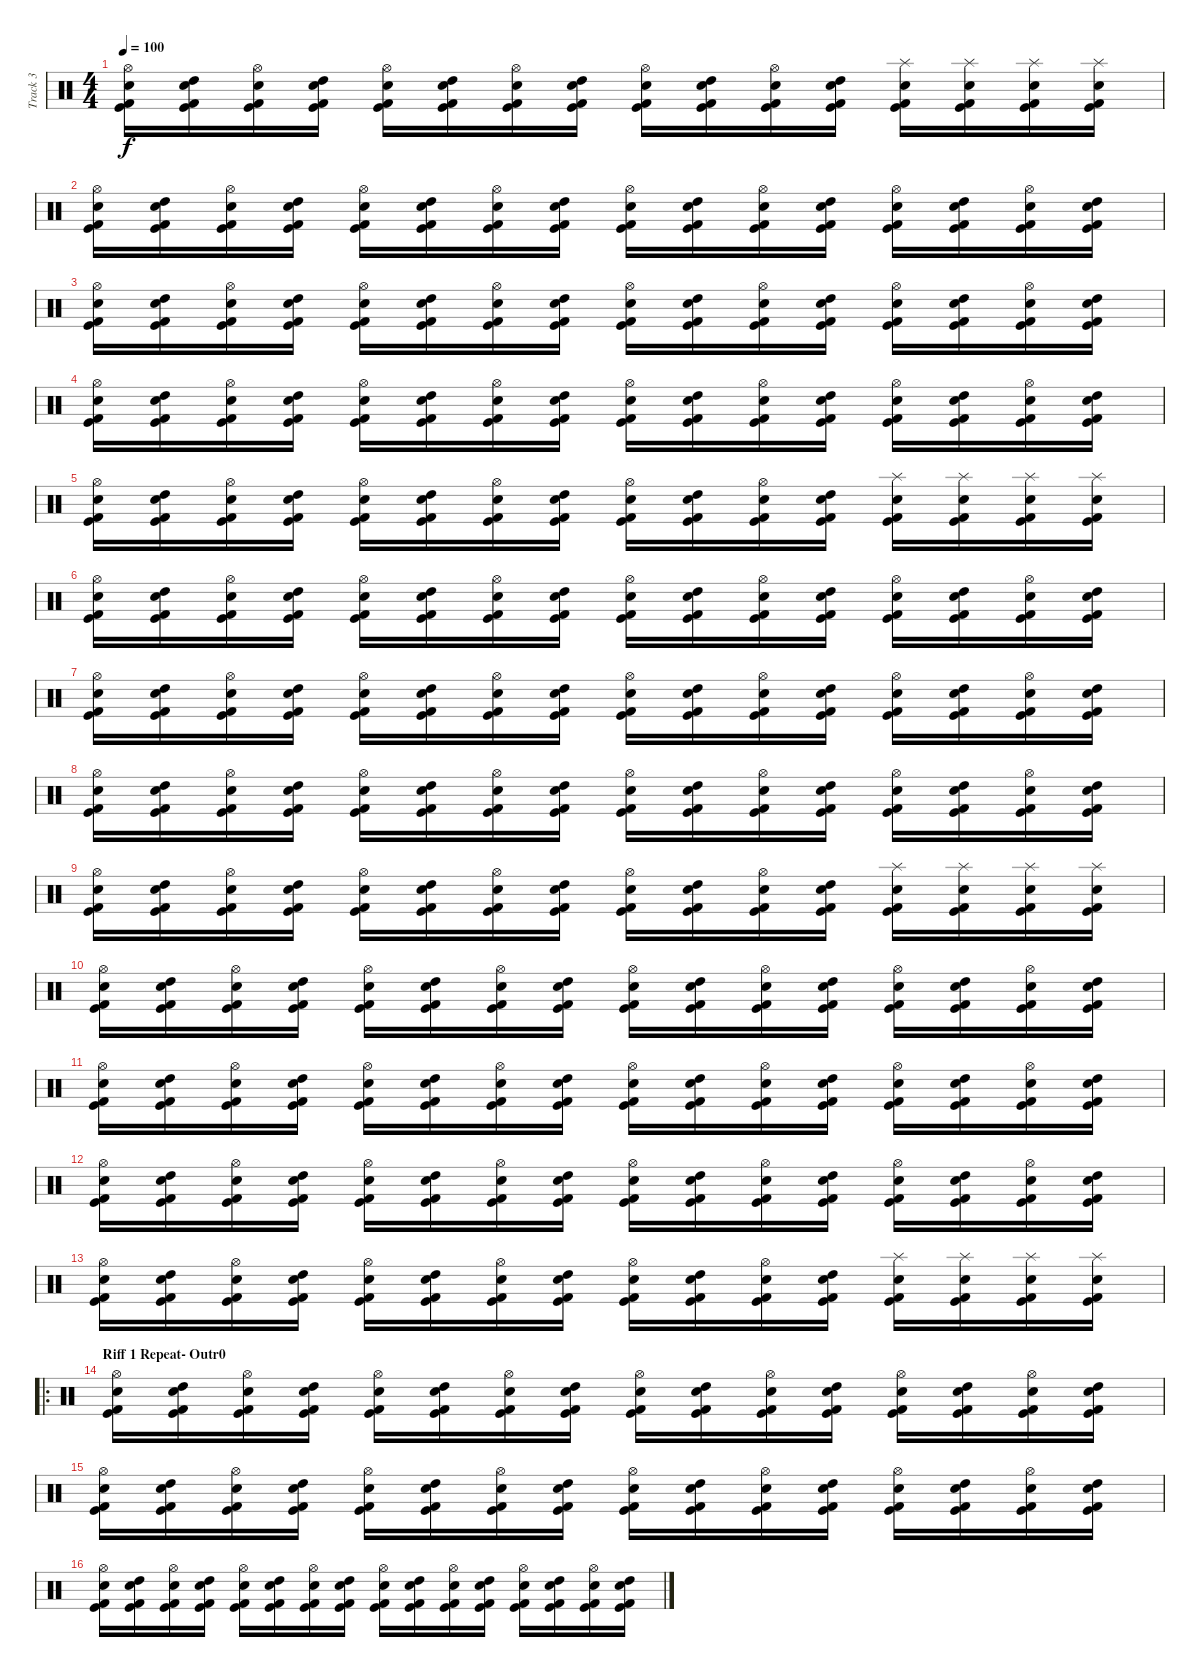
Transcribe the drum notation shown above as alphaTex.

\track ("Track 3" "Track 3") {instrument percussion}
\staff {score}
\articulation defaults
\ts (4 4)
\tempo 100
\clef neutral
\ks c
("Hi-Hat (open)" "Snare (hit) 2" "Kick (hit) 2" "Kick (hit)").16{dy f} ("High Tom (hit)" "Snare (hit) 2" "Kick (hit) 2" "Kick (hit)").16 ("Hi-Hat (open)" "Snare (hit) 2" "Kick (hit) 2" "Kick (hit)").16 ("High Tom (hit)" "Snare (hit) 2" "Kick (hit) 2" "Kick (hit)").16 ("Hi-Hat (open)" "Snare (hit) 2" "Kick (hit) 2" "Kick (hit)").16 ("High Tom (hit)" "Snare (hit) 2" "Kick (hit) 2" "Kick (hit)").16 ("Hi-Hat (open)" "Snare (hit) 2" "Kick (hit) 2" "Kick (hit)").16 ("High Tom (hit)" "Snare (hit) 2" "Kick (hit) 2" "Kick (hit)").16 ("Hi-Hat (open)" "Snare (hit) 2" "Kick (hit) 2" "Kick (hit)").16 ("High Tom (hit)" "Snare (hit) 2" "Kick (hit) 2" "Kick (hit)").16 ("Hi-Hat (open)" "Snare (hit) 2" "Kick (hit) 2" "Kick (hit)").16 ("High Tom (hit)" "Snare (hit) 2" "Kick (hit) 2" "Kick (hit)").16 ("Splash (hit)" "Snare (hit) 2" "Kick (hit) 2" "Kick (hit)").16 ("Splash (hit)" "Snare (hit) 2" "Kick (hit) 2" "Kick (hit)").16 ("Splash (hit)" "Snare (hit) 2" "Kick (hit) 2" "Kick (hit)").16 ("Splash (hit)" "Snare (hit) 2" "Kick (hit) 2" "Kick (hit)").16 |
("Hi-Hat (open)" "Snare (hit) 2" "Kick (hit) 2" "Kick (hit)").16 ("High Tom (hit)" "Snare (hit) 2" "Kick (hit) 2" "Kick (hit)").16 ("Hi-Hat (open)" "Snare (hit) 2" "Kick (hit) 2" "Kick (hit)").16 ("High Tom (hit)" "Snare (hit) 2" "Kick (hit) 2" "Kick (hit)").16 ("Hi-Hat (open)" "Snare (hit) 2" "Kick (hit) 2" "Kick (hit)").16 ("High Tom (hit)" "Snare (hit) 2" "Kick (hit) 2" "Kick (hit)").16 ("Hi-Hat (open)" "Snare (hit) 2" "Kick (hit) 2" "Kick (hit)").16 ("High Tom (hit)" "Snare (hit) 2" "Kick (hit) 2" "Kick (hit)").16 ("Hi-Hat (open)" "Snare (hit) 2" "Kick (hit) 2" "Kick (hit)").16 ("High Tom (hit)" "Snare (hit) 2" "Kick (hit) 2" "Kick (hit)").16 ("Hi-Hat (open)" "Snare (hit) 2" "Kick (hit) 2" "Kick (hit)").16 ("High Tom (hit)" "Snare (hit) 2" "Kick (hit) 2" "Kick (hit)").16 ("Hi-Hat (open)" "Snare (hit) 2" "Kick (hit) 2" "Kick (hit)").16 ("High Tom (hit)" "Snare (hit) 2" "Kick (hit) 2" "Kick (hit)").16 ("Hi-Hat (open)" "Snare (hit) 2" "Kick (hit) 2" "Kick (hit)").16 ("High Tom (hit)" "Snare (hit) 2" "Kick (hit) 2" "Kick (hit)").16 |
("Hi-Hat (open)" "Snare (hit) 2" "Kick (hit) 2" "Kick (hit)").16 ("High Tom (hit)" "Snare (hit) 2" "Kick (hit) 2" "Kick (hit)").16 ("Hi-Hat (open)" "Snare (hit) 2" "Kick (hit) 2" "Kick (hit)").16 ("High Tom (hit)" "Snare (hit) 2" "Kick (hit) 2" "Kick (hit)").16 ("Hi-Hat (open)" "Snare (hit) 2" "Kick (hit) 2" "Kick (hit)").16 ("High Tom (hit)" "Snare (hit) 2" "Kick (hit) 2" "Kick (hit)").16 ("Hi-Hat (open)" "Snare (hit) 2" "Kick (hit) 2" "Kick (hit)").16 ("High Tom (hit)" "Snare (hit) 2" "Kick (hit) 2" "Kick (hit)").16 ("Hi-Hat (open)" "Snare (hit) 2" "Kick (hit) 2" "Kick (hit)").16 ("High Tom (hit)" "Snare (hit) 2" "Kick (hit) 2" "Kick (hit)").16 ("Hi-Hat (open)" "Snare (hit) 2" "Kick (hit) 2" "Kick (hit)").16 ("High Tom (hit)" "Snare (hit) 2" "Kick (hit) 2" "Kick (hit)").16 ("Hi-Hat (open)" "Snare (hit) 2" "Kick (hit) 2" "Kick (hit)").16 ("High Tom (hit)" "Snare (hit) 2" "Kick (hit) 2" "Kick (hit)").16 ("Hi-Hat (open)" "Snare (hit) 2" "Kick (hit) 2" "Kick (hit)").16 ("High Tom (hit)" "Snare (hit) 2" "Kick (hit) 2" "Kick (hit)").16 |
("Hi-Hat (open)" "Snare (hit) 2" "Kick (hit) 2" "Kick (hit)").16 ("High Tom (hit)" "Snare (hit) 2" "Kick (hit) 2" "Kick (hit)").16 ("Hi-Hat (open)" "Snare (hit) 2" "Kick (hit) 2" "Kick (hit)").16 ("High Tom (hit)" "Snare (hit) 2" "Kick (hit) 2" "Kick (hit)").16 ("Hi-Hat (open)" "Snare (hit) 2" "Kick (hit) 2" "Kick (hit)").16 ("High Tom (hit)" "Snare (hit) 2" "Kick (hit) 2" "Kick (hit)").16 ("Hi-Hat (open)" "Snare (hit) 2" "Kick (hit) 2" "Kick (hit)").16 ("High Tom (hit)" "Snare (hit) 2" "Kick (hit) 2" "Kick (hit)").16 ("Hi-Hat (open)" "Snare (hit) 2" "Kick (hit) 2" "Kick (hit)").16 ("High Tom (hit)" "Snare (hit) 2" "Kick (hit) 2" "Kick (hit)").16 ("Hi-Hat (open)" "Snare (hit) 2" "Kick (hit) 2" "Kick (hit)").16 ("High Tom (hit)" "Snare (hit) 2" "Kick (hit) 2" "Kick (hit)").16 ("Hi-Hat (open)" "Snare (hit) 2" "Kick (hit) 2" "Kick (hit)").16 ("High Tom (hit)" "Snare (hit) 2" "Kick (hit) 2" "Kick (hit)").16 ("Hi-Hat (open)" "Snare (hit) 2" "Kick (hit) 2" "Kick (hit)").16 ("High Tom (hit)" "Snare (hit) 2" "Kick (hit) 2" "Kick (hit)").16 |
("Hi-Hat (open)" "Snare (hit) 2" "Kick (hit) 2" "Kick (hit)").16 ("High Tom (hit)" "Snare (hit) 2" "Kick (hit) 2" "Kick (hit)").16 ("Hi-Hat (open)" "Snare (hit) 2" "Kick (hit) 2" "Kick (hit)").16 ("High Tom (hit)" "Snare (hit) 2" "Kick (hit) 2" "Kick (hit)").16 ("Hi-Hat (open)" "Snare (hit) 2" "Kick (hit) 2" "Kick (hit)").16 ("High Tom (hit)" "Snare (hit) 2" "Kick (hit) 2" "Kick (hit)").16 ("Hi-Hat (open)" "Snare (hit) 2" "Kick (hit) 2" "Kick (hit)").16 ("High Tom (hit)" "Snare (hit) 2" "Kick (hit) 2" "Kick (hit)").16 ("Hi-Hat (open)" "Snare (hit) 2" "Kick (hit) 2" "Kick (hit)").16 ("High Tom (hit)" "Snare (hit) 2" "Kick (hit) 2" "Kick (hit)").16 ("Hi-Hat (open)" "Snare (hit) 2" "Kick (hit) 2" "Kick (hit)").16 ("High Tom (hit)" "Snare (hit) 2" "Kick (hit) 2" "Kick (hit)").16 ("Splash (hit)" "Snare (hit) 2" "Kick (hit) 2" "Kick (hit)").16 ("Splash (hit)" "Snare (hit) 2" "Kick (hit) 2" "Kick (hit)").16 ("Splash (hit)" "Snare (hit) 2" "Kick (hit) 2" "Kick (hit)").16 ("Splash (hit)" "Snare (hit) 2" "Kick (hit) 2" "Kick (hit)").16 |
("Hi-Hat (open)" "Snare (hit) 2" "Kick (hit) 2" "Kick (hit)").16 ("High Tom (hit)" "Snare (hit) 2" "Kick (hit) 2" "Kick (hit)").16 ("Hi-Hat (open)" "Snare (hit) 2" "Kick (hit) 2" "Kick (hit)").16 ("High Tom (hit)" "Snare (hit) 2" "Kick (hit) 2" "Kick (hit)").16 ("Hi-Hat (open)" "Snare (hit) 2" "Kick (hit) 2" "Kick (hit)").16 ("High Tom (hit)" "Snare (hit) 2" "Kick (hit) 2" "Kick (hit)").16 ("Hi-Hat (open)" "Snare (hit) 2" "Kick (hit) 2" "Kick (hit)").16 ("High Tom (hit)" "Snare (hit) 2" "Kick (hit) 2" "Kick (hit)").16 ("Hi-Hat (open)" "Snare (hit) 2" "Kick (hit) 2" "Kick (hit)").16 ("High Tom (hit)" "Snare (hit) 2" "Kick (hit) 2" "Kick (hit)").16 ("Hi-Hat (open)" "Snare (hit) 2" "Kick (hit) 2" "Kick (hit)").16 ("High Tom (hit)" "Snare (hit) 2" "Kick (hit) 2" "Kick (hit)").16 ("Hi-Hat (open)" "Snare (hit) 2" "Kick (hit) 2" "Kick (hit)").16 ("High Tom (hit)" "Snare (hit) 2" "Kick (hit) 2" "Kick (hit)").16 ("Hi-Hat (open)" "Snare (hit) 2" "Kick (hit) 2" "Kick (hit)").16 ("High Tom (hit)" "Snare (hit) 2" "Kick (hit) 2" "Kick (hit)").16 |
("Hi-Hat (open)" "Snare (hit) 2" "Kick (hit) 2" "Kick (hit)").16 ("High Tom (hit)" "Snare (hit) 2" "Kick (hit) 2" "Kick (hit)").16 ("Hi-Hat (open)" "Snare (hit) 2" "Kick (hit) 2" "Kick (hit)").16 ("High Tom (hit)" "Snare (hit) 2" "Kick (hit) 2" "Kick (hit)").16 ("Hi-Hat (open)" "Snare (hit) 2" "Kick (hit) 2" "Kick (hit)").16 ("High Tom (hit)" "Snare (hit) 2" "Kick (hit) 2" "Kick (hit)").16 ("Hi-Hat (open)" "Snare (hit) 2" "Kick (hit) 2" "Kick (hit)").16 ("High Tom (hit)" "Snare (hit) 2" "Kick (hit) 2" "Kick (hit)").16 ("Hi-Hat (open)" "Snare (hit) 2" "Kick (hit) 2" "Kick (hit)").16 ("High Tom (hit)" "Snare (hit) 2" "Kick (hit) 2" "Kick (hit)").16 ("Hi-Hat (open)" "Snare (hit) 2" "Kick (hit) 2" "Kick (hit)").16 ("High Tom (hit)" "Snare (hit) 2" "Kick (hit) 2" "Kick (hit)").16 ("Hi-Hat (open)" "Snare (hit) 2" "Kick (hit) 2" "Kick (hit)").16 ("High Tom (hit)" "Snare (hit) 2" "Kick (hit) 2" "Kick (hit)").16 ("Hi-Hat (open)" "Snare (hit) 2" "Kick (hit) 2" "Kick (hit)").16 ("High Tom (hit)" "Snare (hit) 2" "Kick (hit) 2" "Kick (hit)").16 |
("Hi-Hat (open)" "Snare (hit) 2" "Kick (hit) 2" "Kick (hit)").16 ("High Tom (hit)" "Snare (hit) 2" "Kick (hit) 2" "Kick (hit)").16 ("Hi-Hat (open)" "Snare (hit) 2" "Kick (hit) 2" "Kick (hit)").16 ("High Tom (hit)" "Snare (hit) 2" "Kick (hit) 2" "Kick (hit)").16 ("Hi-Hat (open)" "Snare (hit) 2" "Kick (hit) 2" "Kick (hit)").16 ("High Tom (hit)" "Snare (hit) 2" "Kick (hit) 2" "Kick (hit)").16 ("Hi-Hat (open)" "Snare (hit) 2" "Kick (hit) 2" "Kick (hit)").16 ("High Tom (hit)" "Snare (hit) 2" "Kick (hit) 2" "Kick (hit)").16 ("Hi-Hat (open)" "Snare (hit) 2" "Kick (hit) 2" "Kick (hit)").16 ("High Tom (hit)" "Snare (hit) 2" "Kick (hit) 2" "Kick (hit)").16 ("Hi-Hat (open)" "Snare (hit) 2" "Kick (hit) 2" "Kick (hit)").16 ("High Tom (hit)" "Snare (hit) 2" "Kick (hit) 2" "Kick (hit)").16 ("Hi-Hat (open)" "Snare (hit) 2" "Kick (hit) 2" "Kick (hit)").16 ("High Tom (hit)" "Snare (hit) 2" "Kick (hit) 2" "Kick (hit)").16 ("Hi-Hat (open)" "Snare (hit) 2" "Kick (hit) 2" "Kick (hit)").16 ("High Tom (hit)" "Snare (hit) 2" "Kick (hit) 2" "Kick (hit)").16 |
("Hi-Hat (open)" "Snare (hit) 2" "Kick (hit) 2" "Kick (hit)").16 ("High Tom (hit)" "Snare (hit) 2" "Kick (hit) 2" "Kick (hit)").16 ("Hi-Hat (open)" "Snare (hit) 2" "Kick (hit) 2" "Kick (hit)").16 ("High Tom (hit)" "Snare (hit) 2" "Kick (hit) 2" "Kick (hit)").16 ("Hi-Hat (open)" "Snare (hit) 2" "Kick (hit) 2" "Kick (hit)").16 ("High Tom (hit)" "Snare (hit) 2" "Kick (hit) 2" "Kick (hit)").16 ("Hi-Hat (open)" "Snare (hit) 2" "Kick (hit) 2" "Kick (hit)").16 ("High Tom (hit)" "Snare (hit) 2" "Kick (hit) 2" "Kick (hit)").16 ("Hi-Hat (open)" "Snare (hit) 2" "Kick (hit) 2" "Kick (hit)").16 ("High Tom (hit)" "Snare (hit) 2" "Kick (hit) 2" "Kick (hit)").16 ("Hi-Hat (open)" "Snare (hit) 2" "Kick (hit) 2" "Kick (hit)").16 ("High Tom (hit)" "Snare (hit) 2" "Kick (hit) 2" "Kick (hit)").16 ("Splash (hit)" "Snare (hit) 2" "Kick (hit) 2" "Kick (hit)").16 ("Splash (hit)" "Snare (hit) 2" "Kick (hit) 2" "Kick (hit)").16 ("Splash (hit)" "Snare (hit) 2" "Kick (hit) 2" "Kick (hit)").16 ("Splash (hit)" "Snare (hit) 2" "Kick (hit) 2" "Kick (hit)").16 |
("Hi-Hat (open)" "Snare (hit) 2" "Kick (hit) 2" "Kick (hit)").16 ("High Tom (hit)" "Snare (hit) 2" "Kick (hit) 2" "Kick (hit)").16 ("Hi-Hat (open)" "Snare (hit) 2" "Kick (hit) 2" "Kick (hit)").16 ("High Tom (hit)" "Snare (hit) 2" "Kick (hit) 2" "Kick (hit)").16 ("Hi-Hat (open)" "Snare (hit) 2" "Kick (hit) 2" "Kick (hit)").16 ("High Tom (hit)" "Snare (hit) 2" "Kick (hit) 2" "Kick (hit)").16 ("Hi-Hat (open)" "Snare (hit) 2" "Kick (hit) 2" "Kick (hit)").16 ("High Tom (hit)" "Snare (hit) 2" "Kick (hit) 2" "Kick (hit)").16 ("Hi-Hat (open)" "Snare (hit) 2" "Kick (hit) 2" "Kick (hit)").16 ("High Tom (hit)" "Snare (hit) 2" "Kick (hit) 2" "Kick (hit)").16 ("Hi-Hat (open)" "Snare (hit) 2" "Kick (hit) 2" "Kick (hit)").16 ("High Tom (hit)" "Snare (hit) 2" "Kick (hit) 2" "Kick (hit)").16 ("Hi-Hat (open)" "Snare (hit) 2" "Kick (hit) 2" "Kick (hit)").16 ("High Tom (hit)" "Snare (hit) 2" "Kick (hit) 2" "Kick (hit)").16 ("Hi-Hat (open)" "Snare (hit) 2" "Kick (hit) 2" "Kick (hit)").16 ("High Tom (hit)" "Snare (hit) 2" "Kick (hit) 2" "Kick (hit)").16 |
("Hi-Hat (open)" "Snare (hit) 2" "Kick (hit) 2" "Kick (hit)").16 ("High Tom (hit)" "Snare (hit) 2" "Kick (hit) 2" "Kick (hit)").16 ("Hi-Hat (open)" "Snare (hit) 2" "Kick (hit) 2" "Kick (hit)").16 ("High Tom (hit)" "Snare (hit) 2" "Kick (hit) 2" "Kick (hit)").16 ("Hi-Hat (open)" "Snare (hit) 2" "Kick (hit) 2" "Kick (hit)").16 ("High Tom (hit)" "Snare (hit) 2" "Kick (hit) 2" "Kick (hit)").16 ("Hi-Hat (open)" "Snare (hit) 2" "Kick (hit) 2" "Kick (hit)").16 ("High Tom (hit)" "Snare (hit) 2" "Kick (hit) 2" "Kick (hit)").16 ("Hi-Hat (open)" "Snare (hit) 2" "Kick (hit) 2" "Kick (hit)").16 ("High Tom (hit)" "Snare (hit) 2" "Kick (hit) 2" "Kick (hit)").16 ("Hi-Hat (open)" "Snare (hit) 2" "Kick (hit) 2" "Kick (hit)").16 ("High Tom (hit)" "Snare (hit) 2" "Kick (hit) 2" "Kick (hit)").16 ("Hi-Hat (open)" "Snare (hit) 2" "Kick (hit) 2" "Kick (hit)").16 ("High Tom (hit)" "Snare (hit) 2" "Kick (hit) 2" "Kick (hit)").16 ("Hi-Hat (open)" "Snare (hit) 2" "Kick (hit) 2" "Kick (hit)").16 ("High Tom (hit)" "Snare (hit) 2" "Kick (hit) 2" "Kick (hit)").16 |
("Hi-Hat (open)" "Snare (hit) 2" "Kick (hit) 2" "Kick (hit)").16 ("High Tom (hit)" "Snare (hit) 2" "Kick (hit) 2" "Kick (hit)").16 ("Hi-Hat (open)" "Snare (hit) 2" "Kick (hit) 2" "Kick (hit)").16 ("High Tom (hit)" "Snare (hit) 2" "Kick (hit) 2" "Kick (hit)").16 ("Hi-Hat (open)" "Snare (hit) 2" "Kick (hit) 2" "Kick (hit)").16 ("High Tom (hit)" "Snare (hit) 2" "Kick (hit) 2" "Kick (hit)").16 ("Hi-Hat (open)" "Snare (hit) 2" "Kick (hit) 2" "Kick (hit)").16 ("High Tom (hit)" "Snare (hit) 2" "Kick (hit) 2" "Kick (hit)").16 ("Hi-Hat (open)" "Snare (hit) 2" "Kick (hit) 2" "Kick (hit)").16 ("High Tom (hit)" "Snare (hit) 2" "Kick (hit) 2" "Kick (hit)").16 ("Hi-Hat (open)" "Snare (hit) 2" "Kick (hit) 2" "Kick (hit)").16 ("High Tom (hit)" "Snare (hit) 2" "Kick (hit) 2" "Kick (hit)").16 ("Hi-Hat (open)" "Snare (hit) 2" "Kick (hit) 2" "Kick (hit)").16 ("High Tom (hit)" "Snare (hit) 2" "Kick (hit) 2" "Kick (hit)").16 ("Hi-Hat (open)" "Snare (hit) 2" "Kick (hit) 2" "Kick (hit)").16 ("High Tom (hit)" "Snare (hit) 2" "Kick (hit) 2" "Kick (hit)").16 |
("Hi-Hat (open)" "Snare (hit) 2" "Kick (hit) 2" "Kick (hit)").16 ("High Tom (hit)" "Snare (hit) 2" "Kick (hit) 2" "Kick (hit)").16 ("Hi-Hat (open)" "Snare (hit) 2" "Kick (hit) 2" "Kick (hit)").16 ("High Tom (hit)" "Snare (hit) 2" "Kick (hit) 2" "Kick (hit)").16 ("Hi-Hat (open)" "Snare (hit) 2" "Kick (hit) 2" "Kick (hit)").16 ("High Tom (hit)" "Snare (hit) 2" "Kick (hit) 2" "Kick (hit)").16 ("Hi-Hat (open)" "Snare (hit) 2" "Kick (hit) 2" "Kick (hit)").16 ("High Tom (hit)" "Snare (hit) 2" "Kick (hit) 2" "Kick (hit)").16 ("Hi-Hat (open)" "Snare (hit) 2" "Kick (hit) 2" "Kick (hit)").16 ("High Tom (hit)" "Snare (hit) 2" "Kick (hit) 2" "Kick (hit)").16 ("Hi-Hat (open)" "Snare (hit) 2" "Kick (hit) 2" "Kick (hit)").16 ("High Tom (hit)" "Snare (hit) 2" "Kick (hit) 2" "Kick (hit)").16 ("Splash (hit)" "Snare (hit) 2" "Kick (hit) 2" "Kick (hit)").16 ("Splash (hit)" "Snare (hit) 2" "Kick (hit) 2" "Kick (hit)").16 ("Splash (hit)" "Snare (hit) 2" "Kick (hit) 2" "Kick (hit)").16 ("Splash (hit)" "Snare (hit) 2" "Kick (hit) 2" "Kick (hit)").16 |
\ro
\section ("" "Riff 1 Repeat- Outr0")
("Hi-Hat (open)" "Snare (hit) 2" "Kick (hit) 2" "Kick (hit)").16 ("High Tom (hit)" "Snare (hit) 2" "Kick (hit) 2" "Kick (hit)").16 ("Hi-Hat (open)" "Snare (hit) 2" "Kick (hit) 2" "Kick (hit)").16 ("High Tom (hit)" "Snare (hit) 2" "Kick (hit) 2" "Kick (hit)").16 ("Hi-Hat (open)" "Snare (hit) 2" "Kick (hit) 2" "Kick (hit)").16 ("High Tom (hit)" "Snare (hit) 2" "Kick (hit) 2" "Kick (hit)").16 ("Hi-Hat (open)" "Snare (hit) 2" "Kick (hit) 2" "Kick (hit)").16 ("High Tom (hit)" "Snare (hit) 2" "Kick (hit) 2" "Kick (hit)").16 ("Hi-Hat (open)" "Snare (hit) 2" "Kick (hit) 2" "Kick (hit)").16 ("High Tom (hit)" "Snare (hit) 2" "Kick (hit) 2" "Kick (hit)").16 ("Hi-Hat (open)" "Snare (hit) 2" "Kick (hit) 2" "Kick (hit)").16 ("High Tom (hit)" "Snare (hit) 2" "Kick (hit) 2" "Kick (hit)").16 ("Hi-Hat (open)" "Snare (hit) 2" "Kick (hit) 2" "Kick (hit)").16 ("High Tom (hit)" "Snare (hit) 2" "Kick (hit) 2" "Kick (hit)").16 ("Hi-Hat (open)" "Snare (hit) 2" "Kick (hit) 2" "Kick (hit)").16 ("High Tom (hit)" "Snare (hit) 2" "Kick (hit) 2" "Kick (hit)").16 |
("Hi-Hat (open)" "Snare (hit) 2" "Kick (hit) 2" "Kick (hit)").16 ("High Tom (hit)" "Snare (hit) 2" "Kick (hit) 2" "Kick (hit)").16 ("Hi-Hat (open)" "Snare (hit) 2" "Kick (hit) 2" "Kick (hit)").16 ("High Tom (hit)" "Snare (hit) 2" "Kick (hit) 2" "Kick (hit)").16 ("Hi-Hat (open)" "Snare (hit) 2" "Kick (hit) 2" "Kick (hit)").16 ("High Tom (hit)" "Snare (hit) 2" "Kick (hit) 2" "Kick (hit)").16 ("Hi-Hat (open)" "Snare (hit) 2" "Kick (hit) 2" "Kick (hit)").16 ("High Tom (hit)" "Snare (hit) 2" "Kick (hit) 2" "Kick (hit)").16 ("Hi-Hat (open)" "Snare (hit) 2" "Kick (hit) 2" "Kick (hit)").16 ("High Tom (hit)" "Snare (hit) 2" "Kick (hit) 2" "Kick (hit)").16 ("Hi-Hat (open)" "Snare (hit) 2" "Kick (hit) 2" "Kick (hit)").16 ("High Tom (hit)" "Snare (hit) 2" "Kick (hit) 2" "Kick (hit)").16 ("Hi-Hat (open)" "Snare (hit) 2" "Kick (hit) 2" "Kick (hit)").16 ("High Tom (hit)" "Snare (hit) 2" "Kick (hit) 2" "Kick (hit)").16 ("Hi-Hat (open)" "Snare (hit) 2" "Kick (hit) 2" "Kick (hit)").16 ("High Tom (hit)" "Snare (hit) 2" "Kick (hit) 2" "Kick (hit)").16 |
("Hi-Hat (open)" "Snare (hit) 2" "Kick (hit) 2" "Kick (hit)").16 ("High Tom (hit)" "Snare (hit) 2" "Kick (hit) 2" "Kick (hit)").16 ("Hi-Hat (open)" "Snare (hit) 2" "Kick (hit) 2" "Kick (hit)").16 ("High Tom (hit)" "Snare (hit) 2" "Kick (hit) 2" "Kick (hit)").16 ("Hi-Hat (open)" "Snare (hit) 2" "Kick (hit) 2" "Kick (hit)").16 ("High Tom (hit)" "Snare (hit) 2" "Kick (hit) 2" "Kick (hit)").16 ("Hi-Hat (open)" "Snare (hit) 2" "Kick (hit) 2" "Kick (hit)").16 ("High Tom (hit)" "Snare (hit) 2" "Kick (hit) 2" "Kick (hit)").16 ("Hi-Hat (open)" "Snare (hit) 2" "Kick (hit) 2" "Kick (hit)").16 ("High Tom (hit)" "Snare (hit) 2" "Kick (hit) 2" "Kick (hit)").16 ("Hi-Hat (open)" "Snare (hit) 2" "Kick (hit) 2" "Kick (hit)").16 ("High Tom (hit)" "Snare (hit) 2" "Kick (hit) 2" "Kick (hit)").16 ("Hi-Hat (open)" "Snare (hit) 2" "Kick (hit) 2" "Kick (hit)").16 ("High Tom (hit)" "Snare (hit) 2" "Kick (hit) 2" "Kick (hit)").16 ("Hi-Hat (open)" "Snare (hit) 2" "Kick (hit) 2" "Kick (hit)").16 ("High Tom (hit)" "Snare (hit) 2" "Kick (hit) 2" "Kick (hit)").16
